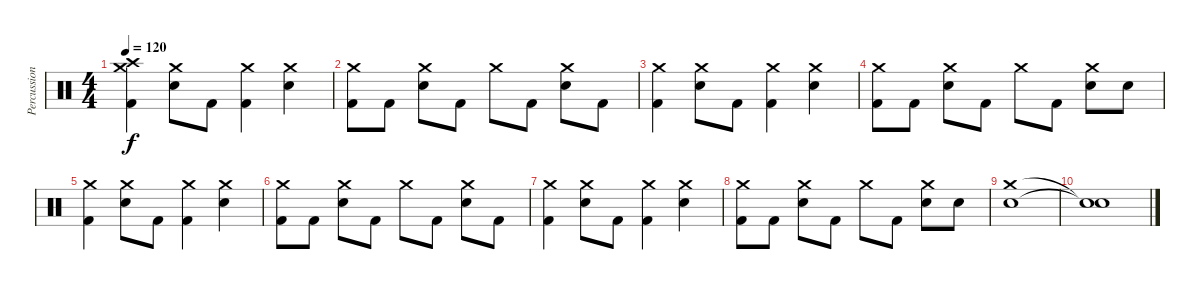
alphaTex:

\track ("Percussions" "Percussion") {instrument percussion}
\staff {score}
\articulation defaults
\ts (4 4)
\tempo 120
\clef neutral
\ks c
("Crash medium (hit)" "Crash high (hit)" "Kick (hit) 2").4{dy f} ("Crash medium (hit)" "Snare (hit) 2").8 "Kick (hit) 2".8 ("Crash medium (hit)" "Kick (hit) 2").4 ("Crash medium (hit)" "Snare (hit) 2").4 |
("Crash medium (hit)" "Kick (hit) 2").8 "Kick (hit) 2".8 ("Crash medium (hit)" "Snare (hit) 2").8 "Kick (hit) 2".8 "Crash medium (hit)".8 "Kick (hit) 2".8 ("Crash medium (hit)" "Snare (hit) 2").8 "Kick (hit) 2".8 |
("Crash medium (hit)" "Kick (hit) 2").4 ("Crash medium (hit)" "Snare (hit) 2").8 "Kick (hit) 2".8 ("Crash medium (hit)" "Kick (hit) 2").4 ("Crash medium (hit)" "Snare (hit) 2").4 |
("Crash medium (hit)" "Kick (hit) 2").8 "Kick (hit) 2".8 ("Crash medium (hit)" "Snare (hit) 2").8 "Kick (hit) 2".8 "Crash medium (hit)".8 "Kick (hit) 2".8 ("Crash medium (hit)" "Snare (hit) 2").8 "Snare (hit) 2".8 |
("Crash medium (hit)" "Kick (hit) 2").4 ("Crash medium (hit)" "Snare (hit) 2").8 "Kick (hit) 2".8 ("Crash medium (hit)" "Kick (hit) 2").4 ("Crash medium (hit)" "Snare (hit) 2").4 |
("Crash medium (hit)" "Kick (hit) 2").8 "Kick (hit) 2".8 ("Crash medium (hit)" "Snare (hit) 2").8 "Kick (hit) 2".8 "Crash medium (hit)".8 "Kick (hit) 2".8 ("Crash medium (hit)" "Snare (hit) 2").8 "Kick (hit) 2".8 |
("Crash medium (hit)" "Kick (hit) 2").4 ("Crash medium (hit)" "Snare (hit) 2").8 "Kick (hit) 2".8 ("Crash medium (hit)" "Kick (hit) 2").4 ("Crash medium (hit)" "Snare (hit) 2").4 |
("Crash medium (hit)" "Kick (hit) 2").8 "Kick (hit) 2".8 ("Crash medium (hit)" "Snare (hit) 2").8 "Kick (hit) 2".8 "Crash medium (hit)".8 "Kick (hit) 2".8 ("Crash medium (hit)" "Snare (hit) 2").8 "Snare (hit) 2".8 |
("Snare (hit) 2" "Crash medium (hit)").1 |
("Snare (hit)"{t} "Snare (hit)"{t}).1
